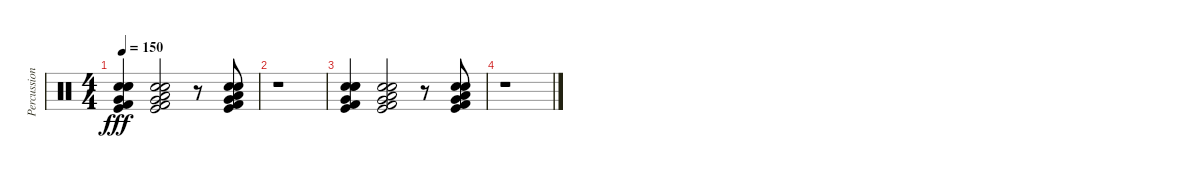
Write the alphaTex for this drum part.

\track ("Percussion" "Percussion") {instrument percussion}
\staff {score}
\articulation defaults
\ts (4 4)
\tempo 150
\clef neutral
\ks c
("Very Low Tom (hit)" "Snare (hit) 2" "Electric Snare (hit)" "Electric Snare (hit)" "Kick (hit) 2" "Kick (hit)").4{dy fff} ("Very Low Tom (hit)" "Snare (hit) 2" "Electric Snare (hit)" "Low Floor Tom (hit)" "Kick (hit) 2" "Kick (hit)").2 r.8 ("Very Low Tom (hit)" "Snare (hit) 2" "Electric Snare (hit)" "Low Floor Tom (hit)" "Kick (hit) 2" "Kick (hit)").8 |
r.1 |
("Very Low Tom (hit)" "Snare (hit) 2" "Electric Snare (hit)" "Electric Snare (hit)" "Kick (hit) 2" "Kick (hit)").4 ("Very Low Tom (hit)" "Snare (hit) 2" "Electric Snare (hit)" "Low Floor Tom (hit)" "Kick (hit) 2" "Kick (hit)").2 r.8 ("Very Low Tom (hit)" "Snare (hit) 2" "Electric Snare (hit)" "Low Floor Tom (hit)" "Kick (hit) 2" "Kick (hit)").8 |
r.1
